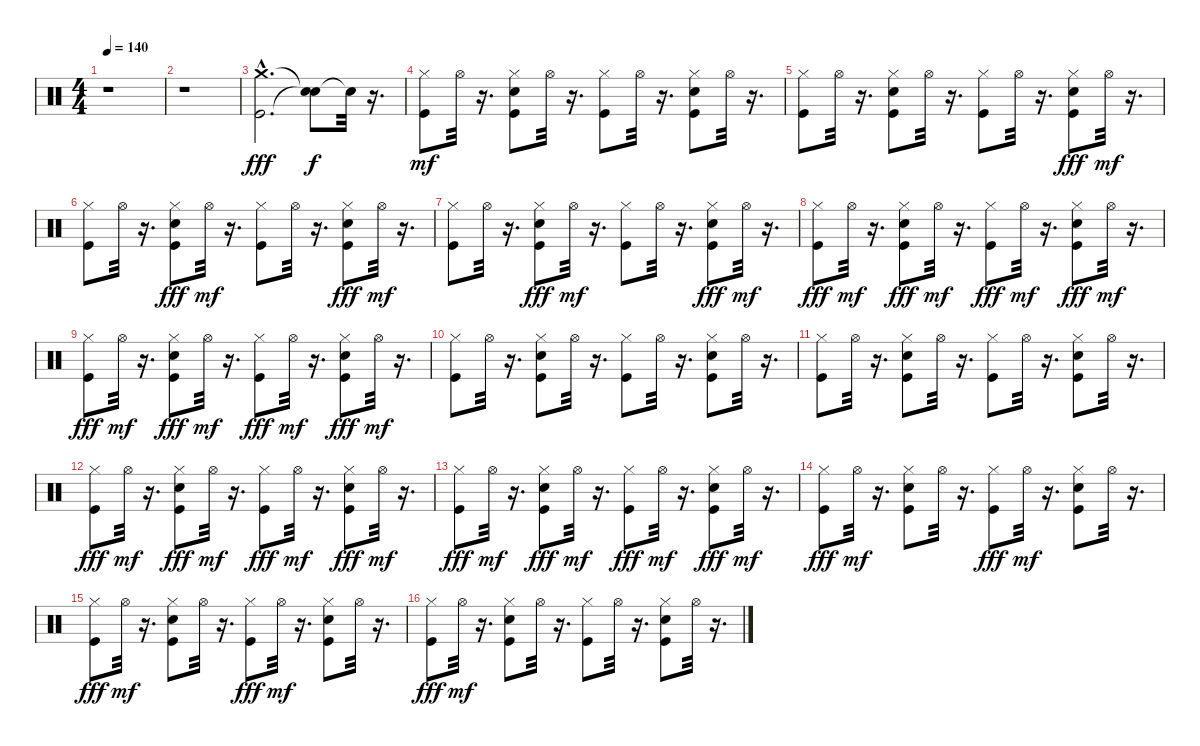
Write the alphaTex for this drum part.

\track "" {instrument percussion}
\staff {score}
\articulation defaults
\ts (4 4)
\tempo 140
\clef neutral
\ks c
r.1{dy f} |
r.1 |
("Crash medium (hit)"{hac} "Kick (hit)"{hac}).2{d dy fff} ("Snare (hit)"{t} "Snare (hit)"{t}).8{dy f} "Snare (hit)"{t}.32 r.16{d} |
("Kick (hit)" "Hi-Hat (closed)").8{dy mf} "Hi-Hat (open)".32 r.16{d} ("Kick (hit)" "Hand Clap (hit)" "Hi-Hat (closed)").8 "Hi-Hat (open)".32 r.16{d} ("Kick (hit)" "Hi-Hat (closed)").8 "Hi-Hat (open)".32 r.16{d} ("Kick (hit)" "Hand Clap (hit)" "Hi-Hat (closed)").8 "Hi-Hat (open)".32 r.16{d} |
("Kick (hit)" "Hi-Hat (closed)").8 "Hi-Hat (open)".32 r.16{d} ("Kick (hit)" "Hi-Hat (closed)" "Hand Clap (hit)").8 "Hi-Hat (open)".32 r.16{d} ("Kick (hit)" "Hi-Hat (closed)").8 "Hi-Hat (open)".32 r.16{d} ("Hand Clap (hit)" "Hi-Hat (closed)" "Kick (hit)").8{dy fff} "Hi-Hat (open)".32{dy mf} r.16{d} |
("Kick (hit)" "Hi-Hat (closed)").8 "Hi-Hat (open)".32 r.16{d} ("Hi-Hat (closed)" "Hand Clap (hit)" "Kick (hit)").8{dy fff} "Hi-Hat (open)".32{dy mf} r.16{d} ("Kick (hit)" "Hi-Hat (closed)").8 "Hi-Hat (open)".32 r.16{d} ("Hi-Hat (closed)" "Hand Clap (hit)" "Kick (hit)").8{dy fff} "Hi-Hat (open)".32{dy mf} r.16{d} |
("Kick (hit)" "Hi-Hat (closed)").8 "Hi-Hat (open)".32 r.16{d} ("Hi-Hat (closed)" "Hand Clap (hit)" "Kick (hit)").8{dy fff} "Hi-Hat (open)".32{dy mf} r.16{d} ("Kick (hit)" "Hi-Hat (closed)").8 "Hi-Hat (open)".32 r.16{d} ("Hand Clap (hit)" "Hi-Hat (closed)" "Kick (hit)").8{dy fff} "Hi-Hat (open)".32{dy mf} r.16{d} |
("Hi-Hat (closed)" "Kick (hit)").8{dy fff} "Hi-Hat (open)".32{dy mf} r.16{d} ("Hi-Hat (closed)" "Hand Clap (hit)" "Kick (hit)").8{dy fff} "Hi-Hat (open)".32{dy mf} r.16{d} ("Hi-Hat (closed)" "Kick (hit)").8{dy fff} "Hi-Hat (open)".32{dy mf} r.16{d} ("Hand Clap (hit)" "Hi-Hat (closed)" "Kick (hit)").8{dy fff} "Hi-Hat (open)".32{dy mf} r.16{d} |
("Hi-Hat (closed)" "Kick (hit)").8{dy fff} "Hi-Hat (open)".32{dy mf} r.16{d} ("Hand Clap (hit)" "Hi-Hat (closed)" "Kick (hit)").8{dy fff} "Hi-Hat (open)".32{dy mf} r.16{d} ("Hi-Hat (closed)" "Kick (hit)").8{dy fff} "Hi-Hat (open)".32{dy mf} r.16{d} ("Hi-Hat (closed)" "Hand Clap (hit)" "Kick (hit)").8{dy fff} "Hi-Hat (open)".32{dy mf} r.16{d} |
("Kick (hit)" "Hi-Hat (closed)").8 "Hi-Hat (open)".32 r.16{d} ("Kick (hit)" "Hi-Hat (closed)" "Hand Clap (hit)").8 "Hi-Hat (open)".32 r.16{d} ("Kick (hit)" "Hi-Hat (closed)").8 "Hi-Hat (open)".32 r.16{d} ("Kick (hit)" "Hi-Hat (closed)" "Hand Clap (hit)").8 "Hi-Hat (open)".32 r.16{d} |
("Kick (hit)" "Hi-Hat (closed)").8 "Hi-Hat (open)".32 r.16{d} ("Kick (hit)" "Hand Clap (hit)" "Hi-Hat (closed)").8 "Hi-Hat (open)".32 r.16{d} ("Kick (hit)" "Hi-Hat (closed)").8 "Hi-Hat (open)".32 r.16{d} ("Kick (hit)" "Hi-Hat (closed)" "Hand Clap (hit)").8 "Hi-Hat (open)".32 r.16{d} |
("Hi-Hat (closed)" "Kick (hit)").8{dy fff} "Hi-Hat (open)".32{dy mf} r.16{d} ("Hand Clap (hit)" "Hi-Hat (closed)" "Kick (hit)").8{dy fff} "Hi-Hat (open)".32{dy mf} r.16{d} ("Hi-Hat (closed)" "Kick (hit)").8{dy fff} "Hi-Hat (open)".32{dy mf} r.16{d} ("Hi-Hat (closed)" "Hand Clap (hit)" "Kick (hit)").8{dy fff} "Hi-Hat (open)".32{dy mf} r.16{d} |
("Hi-Hat (closed)" "Kick (hit)").8{dy fff} "Hi-Hat (open)".32{dy mf} r.16{d} ("Hand Clap (hit)" "Hi-Hat (closed)" "Kick (hit)").8{dy fff} "Hi-Hat (open)".32{dy mf} r.16{d} ("Hi-Hat (closed)" "Kick (hit)").8{dy fff} "Hi-Hat (open)".32{dy mf} r.16{d} ("Hand Clap (hit)" "Hi-Hat (closed)" "Kick (hit)").8{dy fff} "Hi-Hat (open)".32{dy mf} r.16{d} |
("Hi-Hat (closed)" "Kick (hit)").8{dy fff} "Hi-Hat (open)".32{dy mf} r.16{d} ("Kick (hit)" "Hand Clap (hit)" "Hi-Hat (closed)").8 "Hi-Hat (open)".32 r.16{d} ("Hi-Hat (closed)" "Kick (hit)").8{dy fff} "Hi-Hat (open)".32{dy mf} r.16{d} ("Kick (hit)" "Hand Clap (hit)" "Hi-Hat (closed)").8 "Hi-Hat (open)".32 r.16{d} |
("Hi-Hat (closed)" "Kick (hit)").8{dy fff} "Hi-Hat (open)".32{dy mf} r.16{d} ("Kick (hit)" "Hi-Hat (closed)" "Hand Clap (hit)").8 "Hi-Hat (open)".32 r.16{d} ("Hi-Hat (closed)" "Kick (hit)").8{dy fff} "Hi-Hat (open)".32{dy mf} r.16{d} ("Kick (hit)" "Hi-Hat (closed)" "Hand Clap (hit)").8 "Hi-Hat (open)".32 r.16{d} |
("Hi-Hat (closed)" "Kick (hit)").8{dy fff} "Hi-Hat (open)".32{dy mf} r.16{d} ("Kick (hit)" "Hand Clap (hit)" "Hi-Hat (closed)").8 "Hi-Hat (open)".32 r.16{d} ("Kick (hit)" "Hi-Hat (closed)").8 "Hi-Hat (open)".32 r.16{d} ("Kick (hit)" "Hand Clap (hit)" "Hi-Hat (closed)").8 "Hi-Hat (open)".32 r.16{d}
